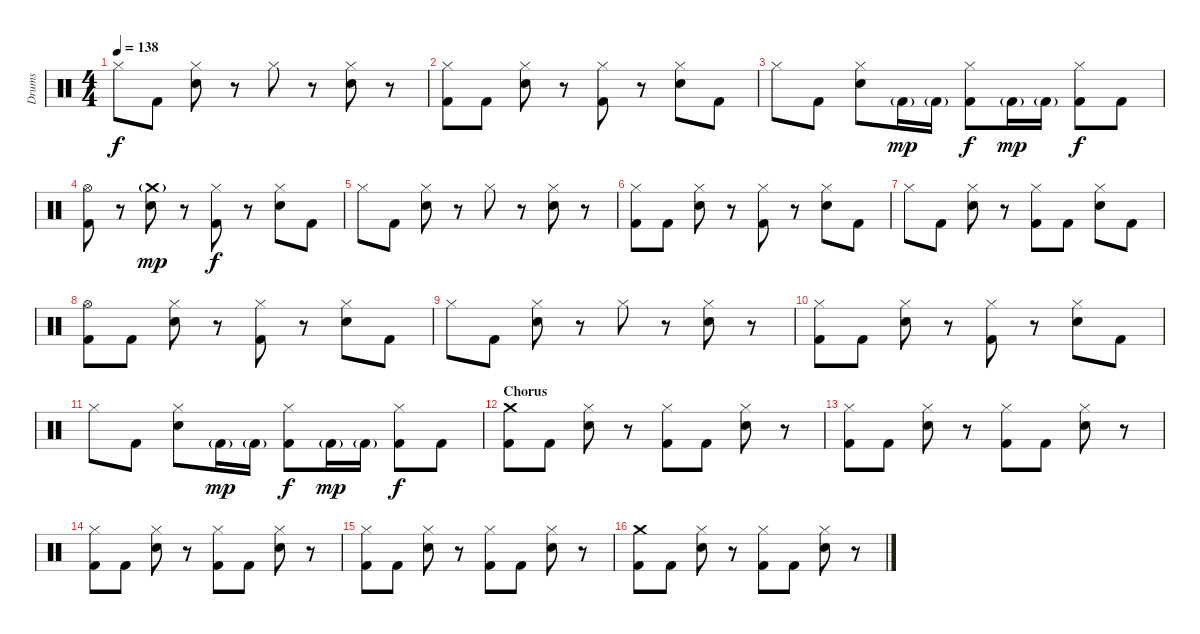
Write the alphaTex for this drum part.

\track ("Drums" "Drums") {instrument percussion}
\staff {score}
\articulation defaults
\ts (4 4)
\tempo 138
\clef neutral
\ks c "Hi-Hat (closed)".8{dy f} "Kick (hit) 2".8
("Hi-Hat (closed)" "Electric Snare (hit)").8 r.8 "Hi-Hat (closed)".8 r.8 ("Hi-Hat (closed)" "Electric Snare (hit)").8 r.8 |
("Hi-Hat (closed)" "Kick (hit) 2").8 "Kick (hit) 2".8 ("Hi-Hat (closed)" "Electric Snare (hit)").8 r.8 ("Hi-Hat (closed)" "Kick (hit) 2").8 r.8 ("Hi-Hat (closed)" "Electric Snare (hit)").8 "Kick (hit) 2".8 |
"Hi-Hat (closed)".8 "Kick (hit) 2".8 ("Hi-Hat (closed)" "Electric Snare (hit)").8 "Kick (hit) 2"{g}.16{dy mp} "Kick (hit) 2"{g}.16 ("Hi-Hat (closed)" "Kick (hit) 2").8{dy f} "Kick (hit) 2"{g}.16{dy mp} "Kick (hit) 2"{g}.16 ("Hi-Hat (closed)" "Kick (hit) 2").8{dy f} "Kick (hit) 2".8 |
("Hi-Hat (open)" "Kick (hit) 2").8 r.8 ("Crash medium (hit)"{g} "Electric Snare (hit)").8{dy mp} r.8 ("Hi-Hat (closed)" "Kick (hit) 2").8{dy f} r.8 ("Hi-Hat (closed)" "Electric Snare (hit)").8 "Kick (hit) 2".8 |
"Hi-Hat (closed)".8 "Kick (hit) 2".8 ("Hi-Hat (closed)" "Electric Snare (hit)").8 r.8 "Hi-Hat (closed)".8 r.8 ("Hi-Hat (closed)" "Electric Snare (hit)").8 r.8 |
("Hi-Hat (closed)" "Kick (hit) 2").8 "Kick (hit) 2".8 ("Hi-Hat (closed)" "Electric Snare (hit)").8 r.8 ("Hi-Hat (closed)" "Kick (hit) 2").8 r.8 ("Hi-Hat (closed)" "Electric Snare (hit)").8 "Kick (hit) 2".8 |
"Hi-Hat (closed)".8 "Kick (hit) 2".8 ("Hi-Hat (closed)" "Electric Snare (hit)").8 r.8 ("Hi-Hat (closed)" "Kick (hit) 2").8 "Kick (hit) 2".8 ("Hi-Hat (closed)" "Electric Snare (hit)").8 "Kick (hit) 2".8 |
("Hi-Hat (open)" "Kick (hit) 2").8 "Kick (hit) 2".8 ("Hi-Hat (closed)" "Electric Snare (hit)").8 r.8 ("Hi-Hat (closed)" "Kick (hit) 2").8 r.8 ("Hi-Hat (closed)" "Electric Snare (hit)").8 "Kick (hit) 2".8 |
"Hi-Hat (closed)".8 "Kick (hit) 2".8 ("Hi-Hat (closed)" "Electric Snare (hit)").8 r.8 "Hi-Hat (closed)".8 r.8 ("Hi-Hat (closed)" "Electric Snare (hit)").8 r.8 |
("Hi-Hat (closed)" "Kick (hit) 2").8 "Kick (hit) 2".8 ("Hi-Hat (closed)" "Electric Snare (hit)").8 r.8 ("Hi-Hat (closed)" "Kick (hit) 2").8 r.8 ("Hi-Hat (closed)" "Electric Snare (hit)").8 "Kick (hit) 2".8 |
"Hi-Hat (closed)".8 "Kick (hit) 2".8 ("Hi-Hat (closed)" "Electric Snare (hit)").8 "Kick (hit) 2"{g}.16{dy mp} "Kick (hit) 2"{g}.16 ("Hi-Hat (closed)" "Kick (hit) 2").8{dy f} "Kick (hit) 2"{g}.16{dy mp} "Kick (hit) 2"{g}.16 ("Hi-Hat (closed)" "Kick (hit) 2").8{dy f} "Kick (hit) 2".8 |
\section ("" "Chorus")
("Crash medium (hit)" "Kick (hit) 2").8 "Kick (hit) 2".8 ("Hi-Hat (closed)" "Electric Snare (hit)").8 r.8 ("Hi-Hat (closed)" "Kick (hit) 2").8 "Kick (hit) 2".8 ("Hi-Hat (closed)" "Electric Snare (hit)").8 r.8 |
("Hi-Hat (closed)" "Kick (hit) 2").8 "Kick (hit) 2".8 ("Hi-Hat (closed)" "Electric Snare (hit)").8 r.8 ("Hi-Hat (closed)" "Kick (hit) 2").8 "Kick (hit) 2".8 ("Hi-Hat (closed)" "Electric Snare (hit)").8 r.8 |
("Hi-Hat (closed)" "Kick (hit) 2").8 "Kick (hit) 2".8 ("Hi-Hat (closed)" "Electric Snare (hit)").8 r.8 ("Hi-Hat (closed)" "Kick (hit) 2").8 "Kick (hit) 2".8 ("Hi-Hat (closed)" "Electric Snare (hit)").8 r.8 |
("Hi-Hat (closed)" "Kick (hit) 2").8 "Kick (hit) 2".8 ("Hi-Hat (closed)" "Electric Snare (hit)").8 r.8 ("Hi-Hat (closed)" "Kick (hit) 2").8 "Kick (hit) 2".8 ("Hi-Hat (closed)" "Electric Snare (hit)").8 r.8 |
("Crash medium (hit)" "Kick (hit) 2").8 "Kick (hit) 2".8 ("Hi-Hat (closed)" "Electric Snare (hit)").8 r.8 ("Hi-Hat (closed)" "Kick (hit) 2").8 "Kick (hit) 2".8 ("Hi-Hat (closed)" "Electric Snare (hit)").8 r.8
